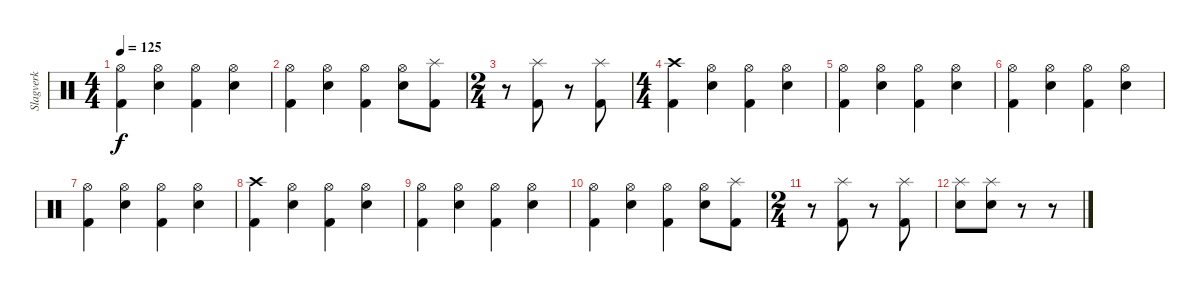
\track ("Slagverk" "Slagverk") {instrument percussion}
\staff {score}
\articulation defaults
\ts (4 4)
\tempo 125
\clef neutral
\ks c
("Hi-Hat (open)" "Kick (hit) 2").4{dy f} ("Hi-Hat (open)" "Snare (hit) 2").4 ("Hi-Hat (open)" "Kick (hit) 2").4 ("Hi-Hat (open)" "Snare (hit) 2").4 |
("Hi-Hat (open)" "Kick (hit) 2").4 ("Hi-Hat (open)" "Snare (hit) 2").4 ("Hi-Hat (open)" "Kick (hit) 2").4 ("Hi-Hat (open)" "Snare (hit) 2").8 ("Splash (hit)" "Kick (hit) 2").8 |
\ts (2 4)
r.8 ("Splash (hit)" "Kick (hit) 2").8 r.8 ("Splash (hit)" "Kick (hit) 2").8 |
\ts (4 4)
("Crash high (hit)" "Kick (hit) 2").4 ("Hi-Hat (open)" "Snare (hit) 2").4 ("Hi-Hat (open)" "Kick (hit) 2").4 ("Hi-Hat (open)" "Snare (hit) 2").4 |
("Hi-Hat (open)" "Kick (hit) 2").4 ("Hi-Hat (open)" "Snare (hit) 2").4 ("Hi-Hat (open)" "Kick (hit) 2").4 ("Hi-Hat (open)" "Snare (hit) 2").4 |
("Hi-Hat (open)" "Kick (hit) 2").4 ("Hi-Hat (open)" "Snare (hit) 2").4 ("Hi-Hat (open)" "Kick (hit) 2").4 ("Hi-Hat (open)" "Snare (hit) 2").4 |
("Hi-Hat (open)" "Kick (hit) 2").4 ("Hi-Hat (open)" "Snare (hit) 2").4 ("Hi-Hat (open)" "Kick (hit) 2").4 ("Hi-Hat (open)" "Snare (hit) 2").4 |
("Crash high (hit)" "Kick (hit) 2").4 ("Hi-Hat (open)" "Snare (hit) 2").4 ("Hi-Hat (open)" "Kick (hit) 2").4 ("Hi-Hat (open)" "Snare (hit) 2").4 |
("Hi-Hat (open)" "Kick (hit) 2").4 ("Hi-Hat (open)" "Snare (hit) 2").4 ("Hi-Hat (open)" "Kick (hit) 2").4 ("Hi-Hat (open)" "Snare (hit) 2").4 |
("Hi-Hat (open)" "Kick (hit) 2").4 ("Hi-Hat (open)" "Snare (hit) 2").4 ("Hi-Hat (open)" "Kick (hit) 2").4 ("Hi-Hat (open)" "Snare (hit) 2").8 ("Splash (hit)" "Kick (hit) 2").8 |
\ts (2 4)
r.8 ("Splash (hit)" "Kick (hit) 2").8 r.8 ("Splash (hit)" "Kick (hit) 2").8 |
("Splash (hit)" "Snare (hit) 2").8 ("Splash (hit)" "Snare (hit) 2").8 r.8 r.8
